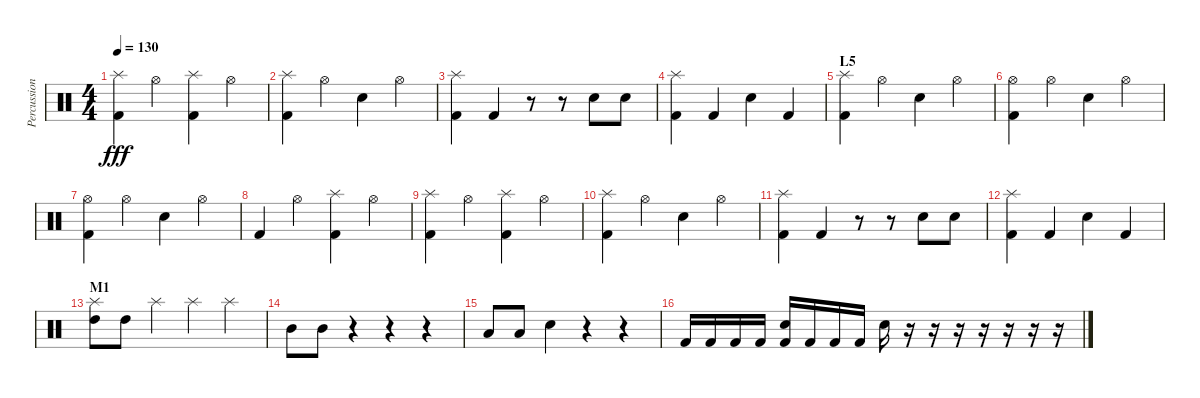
\track ("Percussion" "Percussion") {instrument percussion}
\staff {score}
\articulation defaults
\ts (4 4)
\tempo 130
\clef neutral
\ks c
("Kick (hit) 2" "Splash (hit)").4{dy fff} "Hi-Hat (open)".4 ("Kick (hit) 2" "Splash (hit)").4 "Hi-Hat (open)".4 |
("Kick (hit) 2" "Splash (hit)").4 "Hi-Hat (open)".4 "Electric Snare (hit)".4 "Hi-Hat (open)".4 |
("Kick (hit) 2" "Splash (hit)").4 "Kick (hit) 2".4 r.8 r.8 "Electric Snare (hit)".8 "Electric Snare (hit)".8 |
("Kick (hit) 2" "Splash (hit)").4 "Kick (hit) 2".4 "Electric Snare (hit)".4 "Kick (hit) 2".4 |
\section ("" "L5")
("Kick (hit) 2" "Splash (hit)").4 "Hi-Hat (open)".4 "Electric Snare (hit)".4 "Hi-Hat (open)".4 |
("Kick (hit) 2" "Hi-Hat (open)").4 "Hi-Hat (open)".4 "Electric Snare (hit)".4 "Hi-Hat (open)".4 |
("Kick (hit) 2" "Hi-Hat (open)").4 "Hi-Hat (open)".4 "Electric Snare (hit)".4 "Hi-Hat (open)".4 |
"Kick (hit) 2".4 "Hi-Hat (open)".4 ("Splash (hit)" "Kick (hit) 2").4 "Hi-Hat (open)".4 |
("Kick (hit) 2" "Splash (hit)").4 "Hi-Hat (open)".4 ("Kick (hit) 2" "Splash (hit)").4 "Hi-Hat (open)".4 |
("Kick (hit) 2" "Splash (hit)").4 "Hi-Hat (open)".4 "Electric Snare (hit)".4 "Hi-Hat (open)".4 |
("Kick (hit) 2" "Splash (hit)").4 "Kick (hit) 2".4 r.8 r.8 "Electric Snare (hit)".8 "Electric Snare (hit)".8 |
("Kick (hit) 2" "Splash (hit)").4 "Kick (hit) 2".4 "Electric Snare (hit)".4 "Kick (hit) 2".4 |
\section ("" "M1")
("High Tom (hit)" "Splash (hit)").8 "High Tom (hit)".8 "Splash (hit)".4 "Splash (hit)".4 "Splash (hit)".4 |
"Mid Tom (hit)".8 "Mid Tom (hit)".8 r.4 r.4 r.4 |
"Low Tom (hit)".8 "Low Tom (hit)".8 "Electric Snare (hit)".4 r.4 r.4 |
"Kick (hit) 2".16 "Kick (hit) 2".16 "Kick (hit) 2".16 "Kick (hit) 2".16 ("Kick (hit) 2" "Electric Snare (hit)").16 "Kick (hit) 2".16 "Kick (hit) 2".16 "Kick (hit) 2".16 "Electric Snare (hit)".16 r.16 r.16 r.16 r.16 r.16 r.16 r.16
